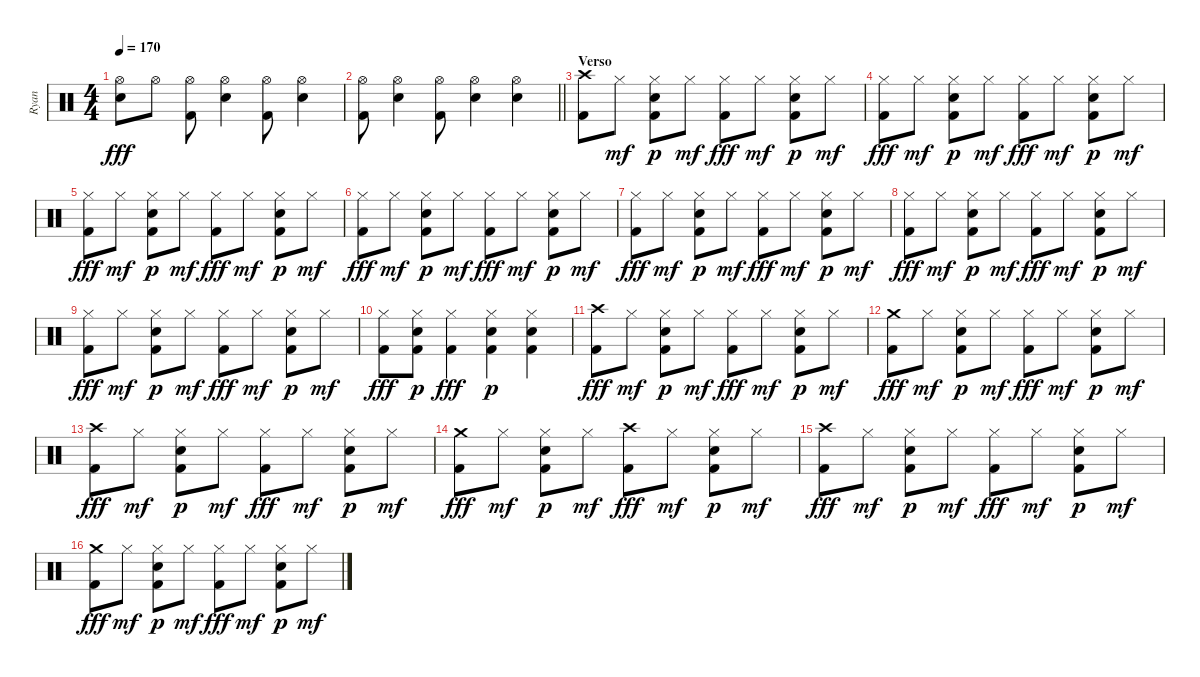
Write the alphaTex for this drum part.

\track ("Ryan" "Ryan") {instrument percussion}
\staff {score}
\articulation defaults
\ts (4 4)
\tempo 170
\clef neutral
\ks c
("Hi-Hat (open)" "Snare (hit) 2").8{dy fff} "Hi-Hat (open)".8 ("Hi-Hat (open)" "Kick (hit) 2").8 ("Hi-Hat (open)" "Snare (hit) 2").4 ("Hi-Hat (open)" "Kick (hit) 2").8 ("Hi-Hat (open)" "Snare (hit) 2").4 |
\barLineRight lightlight
("Hi-Hat (open)" "Kick (hit) 2").8 ("Hi-Hat (open)" "Snare (hit) 2").4 ("Hi-Hat (open)" "Kick (hit) 2").8 ("Hi-Hat (open)" "Snare (hit) 2").4 ("Hi-Hat (open)" "Snare (hit) 2").4 |
\section ("" "Verso")
("Kick (hit) 2" "Crash high (hit)").8 "Hi-Hat (closed)".8{dy mf} ("Snare (hit) 2" "Hi-Hat (closed)" "Kick (hit) 2").8{dy p} "Hi-Hat (closed)".8{dy mf} ("Kick (hit) 2" "Hi-Hat (closed)").8{dy fff} "Hi-Hat (closed)".8{dy mf} ("Snare (hit) 2" "Hi-Hat (closed)" "Kick (hit) 2").8{dy p} "Hi-Hat (closed)".8{dy mf} |
("Kick (hit) 2" "Hi-Hat (closed)").8{dy fff} "Hi-Hat (closed)".8{dy mf} ("Snare (hit) 2" "Hi-Hat (closed)" "Kick (hit) 2").8{dy p} "Hi-Hat (closed)".8{dy mf} ("Kick (hit) 2" "Hi-Hat (closed)").8{dy fff} "Hi-Hat (closed)".8{dy mf} ("Snare (hit) 2" "Hi-Hat (closed)" "Kick (hit) 2").8{dy p} "Hi-Hat (closed)".8{dy mf} |
("Kick (hit) 2" "Hi-Hat (closed)").8{dy fff} "Hi-Hat (closed)".8{dy mf} ("Snare (hit) 2" "Hi-Hat (closed)" "Kick (hit) 2").8{dy p} "Hi-Hat (closed)".8{dy mf} ("Kick (hit) 2" "Hi-Hat (closed)").8{dy fff} "Hi-Hat (closed)".8{dy mf} ("Snare (hit) 2" "Hi-Hat (closed)" "Kick (hit) 2").8{dy p} "Hi-Hat (closed)".8{dy mf} |
("Kick (hit) 2" "Hi-Hat (closed)").8{dy fff} "Hi-Hat (closed)".8{dy mf} ("Snare (hit) 2" "Hi-Hat (closed)" "Kick (hit) 2").8{dy p} "Hi-Hat (closed)".8{dy mf} ("Kick (hit) 2" "Hi-Hat (closed)").8{dy fff} "Hi-Hat (closed)".8{dy mf} ("Snare (hit) 2" "Hi-Hat (closed)" "Kick (hit) 2").8{dy p} "Hi-Hat (closed)".8{dy mf} |
("Kick (hit) 2" "Hi-Hat (closed)").8{dy fff} "Hi-Hat (closed)".8{dy mf} ("Snare (hit) 2" "Hi-Hat (closed)" "Kick (hit) 2").8{dy p} "Hi-Hat (closed)".8{dy mf} ("Kick (hit) 2" "Hi-Hat (closed)").8{dy fff} "Hi-Hat (closed)".8{dy mf} ("Snare (hit) 2" "Hi-Hat (closed)" "Kick (hit) 2").8{dy p} "Hi-Hat (closed)".8{dy mf} |
("Kick (hit) 2" "Hi-Hat (closed)").8{dy fff} "Hi-Hat (closed)".8{dy mf} ("Snare (hit) 2" "Hi-Hat (closed)" "Kick (hit) 2").8{dy p} "Hi-Hat (closed)".8{dy mf} ("Kick (hit) 2" "Hi-Hat (closed)").8{dy fff} "Hi-Hat (closed)".8{dy mf} ("Snare (hit) 2" "Hi-Hat (closed)" "Kick (hit) 2").8{dy p} "Hi-Hat (closed)".8{dy mf} |
("Kick (hit) 2" "Hi-Hat (closed)").8{dy fff} "Hi-Hat (closed)".8{dy mf} ("Snare (hit) 2" "Hi-Hat (closed)" "Kick (hit) 2").8{dy p} "Hi-Hat (closed)".8{dy mf} ("Kick (hit) 2" "Hi-Hat (closed)").8{dy fff} "Hi-Hat (closed)".8{dy mf} ("Snare (hit) 2" "Hi-Hat (closed)" "Kick (hit) 2").8{dy p} "Hi-Hat (closed)".8{dy mf} |
("Kick (hit) 2" "Hi-Hat (closed)").8{dy fff} ("Snare (hit) 2" "Hi-Hat (closed)" "Kick (hit) 2").8{dy p} ("Kick (hit) 2" "Hi-Hat (closed)").4{dy fff} ("Snare (hit) 2" "Hi-Hat (closed)" "Kick (hit) 2").4{dy p} ("Snare (hit) 2" "Hi-Hat (closed)" "Kick (hit) 2").4 |
("Kick (hit) 2" "Crash high (hit)").8{dy fff} "Hi-Hat (closed)".8{dy mf} ("Snare (hit) 2" "Hi-Hat (closed)" "Kick (hit) 2").8{dy p} "Hi-Hat (closed)".8{dy mf} ("Kick (hit) 2" "Hi-Hat (closed)").8{dy fff} "Hi-Hat (closed)".8{dy mf} ("Snare (hit) 2" "Hi-Hat (closed)" "Kick (hit) 2").8{dy p} "Hi-Hat (closed)".8{dy mf} |
("Kick (hit) 2" "Crash medium (hit)").8{dy fff} "Hi-Hat (closed)".8{dy mf} ("Snare (hit) 2" "Hi-Hat (closed)" "Kick (hit) 2").8{dy p} "Hi-Hat (closed)".8{dy mf} ("Kick (hit) 2" "Hi-Hat (closed)").8{dy fff} "Hi-Hat (closed)".8{dy mf} ("Snare (hit) 2" "Hi-Hat (closed)" "Kick (hit) 2").8{dy p} "Hi-Hat (closed)".8{dy mf} |
("Kick (hit) 2" "Crash high (hit)").8{dy fff} "Hi-Hat (closed)".8{dy mf} ("Snare (hit) 2" "Hi-Hat (closed)" "Kick (hit) 2").8{dy p} "Hi-Hat (closed)".8{dy mf} ("Kick (hit) 2" "Hi-Hat (closed)").8{dy fff} "Hi-Hat (closed)".8{dy mf} ("Snare (hit) 2" "Hi-Hat (closed)" "Kick (hit) 2").8{dy p} "Hi-Hat (closed)".8{dy mf} |
("Kick (hit) 2" "Crash medium (hit)").8{dy fff} "Hi-Hat (closed)".8{dy mf} ("Snare (hit) 2" "Hi-Hat (closed)" "Kick (hit) 2").8{dy p} "Hi-Hat (closed)".8{dy mf} ("Kick (hit) 2" "Crash high (hit)").8{dy fff} "Hi-Hat (closed)".8{dy mf} ("Snare (hit) 2" "Hi-Hat (closed)" "Kick (hit) 2").8{dy p} "Hi-Hat (closed)".8{dy mf} |
("Kick (hit) 2" "Crash high (hit)").8{dy fff} "Hi-Hat (closed)".8{dy mf} ("Snare (hit) 2" "Hi-Hat (closed)" "Kick (hit) 2").8{dy p} "Hi-Hat (closed)".8{dy mf} ("Kick (hit) 2" "Hi-Hat (closed)").8{dy fff} "Hi-Hat (closed)".8{dy mf} ("Snare (hit) 2" "Hi-Hat (closed)" "Kick (hit) 2").8{dy p} "Hi-Hat (closed)".8{dy mf} |
("Kick (hit) 2" "Crash medium (hit)").8{dy fff} "Hi-Hat (closed)".8{dy mf} ("Snare (hit) 2" "Hi-Hat (closed)" "Kick (hit) 2").8{dy p} "Hi-Hat (closed)".8{dy mf} ("Kick (hit) 2" "Hi-Hat (closed)").8{dy fff} "Hi-Hat (closed)".8{dy mf} ("Snare (hit) 2" "Hi-Hat (closed)" "Kick (hit) 2").8{dy p} "Hi-Hat (closed)".8{dy mf}
